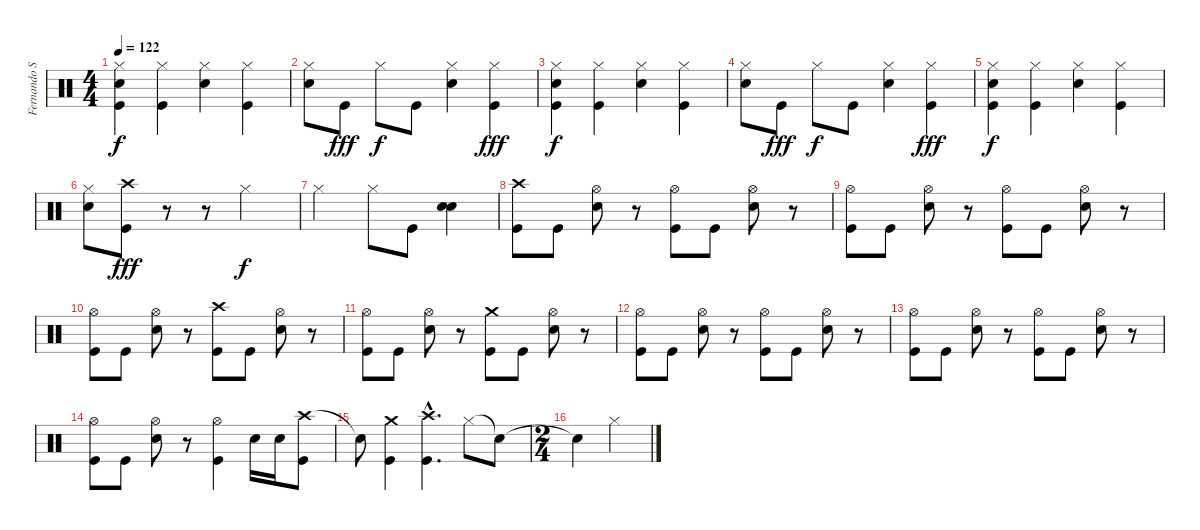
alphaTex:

\track ("Fernando Sanchez" "Fernando S") {instrument percussion}
\staff {score}
\articulation defaults
\ts (4 4)
\tempo 122
\clef neutral
\ks c
("Hi-Hat (closed)" "Electric Snare (hit)" "Kick (hit)").4{dy f} ("Hi-Hat (closed)" "Kick (hit)").4 ("Hi-Hat (closed)" "Electric Snare (hit)").4 ("Hi-Hat (closed)" "Kick (hit)").4 |
("Hi-Hat (closed)" "Electric Snare (hit)").8 "Kick (hit)".8{dy fff} "Hi-Hat (closed)".8{dy f} "Kick (hit)".8 ("Hi-Hat (closed)" "Electric Snare (hit)").4 ("Hi-Hat (closed)" "Kick (hit)").4{dy fff} |
("Hi-Hat (closed)" "Electric Snare (hit)" "Kick (hit)").4{dy f} ("Hi-Hat (closed)" "Kick (hit)").4 ("Hi-Hat (closed)" "Electric Snare (hit)").4 ("Hi-Hat (closed)" "Kick (hit)").4 |
("Hi-Hat (closed)" "Electric Snare (hit)").8 "Kick (hit)".8{dy fff} "Hi-Hat (closed)".8{dy f} "Kick (hit)".8 ("Hi-Hat (closed)" "Electric Snare (hit)").4 ("Hi-Hat (closed)" "Kick (hit)").4{dy fff} |
("Hi-Hat (closed)" "Electric Snare (hit)" "Kick (hit)").4{dy f} ("Hi-Hat (closed)" "Kick (hit)").4 ("Hi-Hat (closed)" "Electric Snare (hit)").4 ("Hi-Hat (closed)" "Kick (hit)").4 |
("Hi-Hat (closed)" "Electric Snare (hit)").8 ("Crash high (hit)" "Kick (hit)").8{dy fff} r.8 r.8 "Hi-Hat (closed)".2{dy f} |
"Hi-Hat (closed)".2 "Hi-Hat (closed)".8 "Kick (hit)".8 ("Electric Snare (hit)" "Electric Snare (hit)").4{bd 240} |
("Crash high (hit)" "Kick (hit)").8 "Kick (hit)".8 ("Hi-Hat (open)" "Electric Snare (hit)").8 r.8 ("Hi-Hat (open)" "Kick (hit)").8 "Kick (hit)".8 ("Hi-Hat (open)" "Electric Snare (hit)").8 r.8 |
("Hi-Hat (open)" "Kick (hit)").8 "Kick (hit)".8 ("Hi-Hat (open)" "Electric Snare (hit)").8 r.8 ("Hi-Hat (open)" "Kick (hit)").8 "Kick (hit)".8 ("Hi-Hat (open)" "Electric Snare (hit)").8 r.8 |
("Hi-Hat (open)" "Kick (hit)").8 "Kick (hit)".8 ("Hi-Hat (open)" "Electric Snare (hit)").8 r.8 ("Crash high (hit)" "Kick (hit)").8 "Kick (hit)".8 ("Hi-Hat (open)" "Electric Snare (hit)").8 r.8 |
("Hi-Hat (open)" "Kick (hit)").8 "Kick (hit)".8 ("Hi-Hat (open)" "Electric Snare (hit)").8 r.8 ("Crash medium (hit)" "Kick (hit)").8 "Kick (hit)".8 ("Hi-Hat (open)" "Electric Snare (hit)").8 r.8 |
("Hi-Hat (open)" "Kick (hit)").8 "Kick (hit)".8 ("Hi-Hat (open)" "Electric Snare (hit)").8 r.8 ("Hi-Hat (open)" "Kick (hit)").8 "Kick (hit)".8 ("Hi-Hat (open)" "Electric Snare (hit)").8 r.8 |
("Hi-Hat (open)" "Kick (hit)").8 "Kick (hit)".8 ("Hi-Hat (open)" "Electric Snare (hit)").8 r.8 ("Hi-Hat (open)" "Kick (hit)").8 "Kick (hit)".8 ("Hi-Hat (open)" "Electric Snare (hit)").8 r.8 |
("Hi-Hat (open)" "Kick (hit)").8 "Kick (hit)".8 ("Hi-Hat (open)" "Electric Snare (hit)").8 r.8 ("Hi-Hat (open)" "Kick (hit)").4 "Electric Snare (hit)".16 "Electric Snare (hit)".16 ("Crash high (hit)" "Kick (hit)").8 |
"Snare (hit)"{t}.8 ("Crash medium (hit)" "Kick (hit)").4 ("Crash high (hit)"{hac} "Kick (hit)"{hac}).4{d} "Hi-Hat (closed)".8 "Snare (hit)"{t}.8 |
\ts (2 4)
"Snare (hit)"{t}.4 "Hi-Hat (closed)".4
